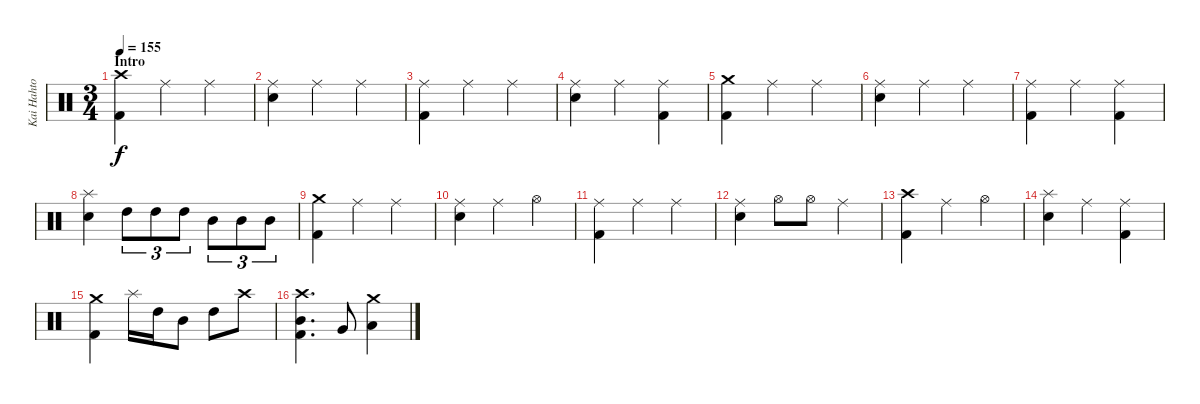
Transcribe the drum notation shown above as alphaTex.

\track ("Kai Hahto" "Kai Hahto") {instrument percussion}
\staff {score}
\articulation defaults
\ts (3 4)
\section ("" "Intro")
\tempo 155
\clef neutral
\ks c
("Crash high (hit)" "Kick (hit) 2").4{dy f} "Ride (middle)".4 "Ride (middle)".4 |
("Ride (middle)" "Electric Snare (hit)").4 "Ride (middle)".4 "Ride (middle)".4 |
("Ride (middle)" "Kick (hit) 2").4 "Ride (middle)".4 "Ride (middle)".4 |
("Ride (middle)" "Electric Snare (hit)").4 "Ride (middle)".4 ("Ride (middle)" "Kick (hit) 2").4 |
("Crash medium (hit)" "Kick (hit) 2").4 "Ride (middle)".4 "Ride (middle)".4 |
("Ride (middle)" "Electric Snare (hit)").4 "Ride (middle)".4 "Ride (middle)".4 |
("Ride (middle)" "Kick (hit) 2").4 "Ride (middle)".4 ("Ride (middle)" "Kick (hit) 2").4 |
("Splash (hit)" "Electric Snare (hit)").4 "High Tom (hit)".8{tu (3 2)} "High Tom (hit)".8{tu (3 2)} "High Tom (hit)".8{tu (3 2)} "Mid Tom (hit)".8{tu (3 2)} "Mid Tom (hit)".8{tu (3 2)} "Mid Tom (hit)".8{tu (3 2)} |
("Crash medium (hit)" "Kick (hit) 2").4 "Ride (middle)".4 "Ride (middle)".4 |
("Ride (middle)" "Electric Snare (hit)").4 "Ride (middle)".4 "Hi-Hat (open)".4 |
("Ride (middle)" "Kick (hit) 2").4 "Ride (middle)".4 "Ride (middle)".4 |
("Ride (middle)" "Electric Snare (hit)").4 "Hi-Hat (open)".8 "Hi-Hat (open)".8 "Ride (middle)".4 |
("Crash high (hit)" "Kick (hit) 2").4 "Ride (middle)".4 "Hi-Hat (open)".4 |
("Splash (hit)" "Electric Snare (hit)").4 "Ride (middle)".4 ("Ride (middle)" "Kick (hit) 2").4 |
("Crash medium (hit)" "Kick (hit) 2").4 "Splash (hit)".16 "High Tom (hit)".16 "Mid Tom (hit)".8 "High Tom (hit)".8 "Crash high (hit)".8 |
("Crash high (hit)" "Mid Tom (hit)" "Kick (hit) 2").4{d} "Very Low Tom (hit)".8 ("Crash medium (hit)" "Low Floor Tom (hit)").4
